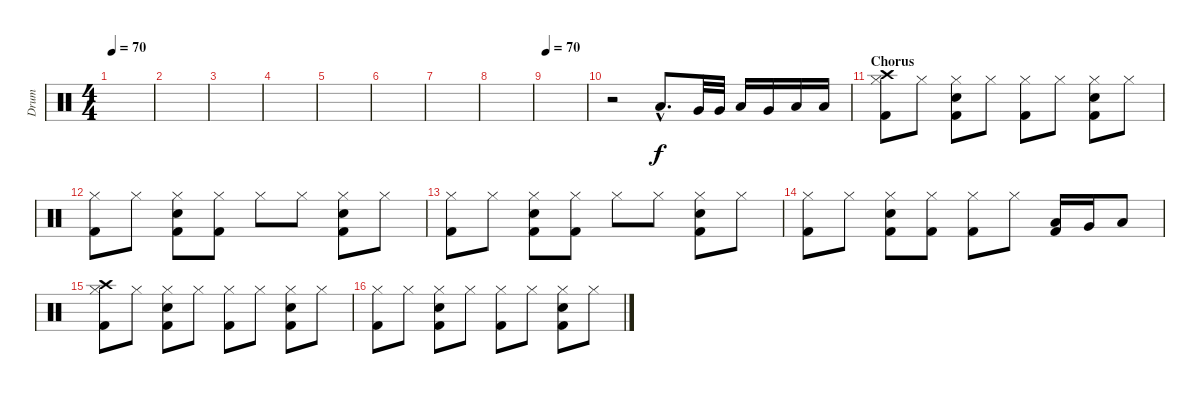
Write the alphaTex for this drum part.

\track ("Drum" "Drum") {instrument percussion}
\staff {score}
\articulation defaults
\ts (4 4)
\tempo 70
\clef neutral
\ks c
|
|
|
|
|
|
|
|
\tempo 70
|
r.2 "Low Tom (hit)"{hac}.8{d} "Very Low Tom (hit)".32 "Very Low Tom (hit)".32 "Low Tom (hit)".16 "Very Low Tom (hit)".16 "Low Floor Tom (hit)".16 "Low Floor Tom (hit)".16 |
\section ("" "Chorus")
("Crash high (hit)" "Hi-Hat (closed)" "Kick (hit) 2").8 "Hi-Hat (closed)".8 ("Hi-Hat (closed)" "Electric Snare (hit)" "Kick (hit) 2").8 "Hi-Hat (closed)".8 ("Hi-Hat (closed)" "Kick (hit) 2").8 "Hi-Hat (closed)".8 ("Hi-Hat (closed)" "Electric Snare (hit)" "Kick (hit) 2").8 "Hi-Hat (closed)".8 |
("Hi-Hat (closed)" "Kick (hit) 2").8 "Hi-Hat (closed)".8 ("Hi-Hat (closed)" "Electric Snare (hit)" "Kick (hit) 2").8 ("Hi-Hat (closed)" "Kick (hit) 2").8 "Hi-Hat (closed)".8 "Hi-Hat (closed)".8 ("Hi-Hat (closed)" "Electric Snare (hit)" "Kick (hit) 2").8 "Hi-Hat (closed)".8 |
("Hi-Hat (closed)" "Kick (hit) 2").8 "Hi-Hat (closed)".8 ("Hi-Hat (closed)" "Electric Snare (hit)" "Kick (hit) 2").8 ("Hi-Hat (closed)" "Kick (hit) 2").8 "Hi-Hat (closed)".8 "Hi-Hat (closed)".8 ("Hi-Hat (closed)" "Electric Snare (hit)" "Kick (hit) 2").8 "Hi-Hat (closed)".8 |
("Hi-Hat (closed)" "Kick (hit) 2").8 "Hi-Hat (closed)".8 ("Hi-Hat (closed)" "Electric Snare (hit)" "Kick (hit) 2").8 ("Hi-Hat (closed)" "Kick (hit) 2").8 ("Hi-Hat (closed)" "Kick (hit) 2").8 "Hi-Hat (closed)".8 ("Low Tom (hit)" "Kick (hit) 2").16 "Very Low Tom (hit)".16 "Low Floor Tom (hit)".8 |
("Crash high (hit)" "Hi-Hat (closed)" "Kick (hit) 2").8 "Hi-Hat (closed)".8 ("Hi-Hat (closed)" "Electric Snare (hit)" "Kick (hit) 2").8 "Hi-Hat (closed)".8 ("Hi-Hat (closed)" "Kick (hit) 2").8 "Hi-Hat (closed)".8 ("Hi-Hat (closed)" "Electric Snare (hit)" "Kick (hit) 2").8 "Hi-Hat (closed)".8 |
("Hi-Hat (closed)" "Kick (hit) 2").8 "Hi-Hat (closed)".8 ("Hi-Hat (closed)" "Electric Snare (hit)" "Kick (hit) 2").8 "Hi-Hat (closed)".8 ("Hi-Hat (closed)" "Kick (hit) 2").8 "Hi-Hat (closed)".8 ("Hi-Hat (closed)" "Electric Snare (hit)" "Kick (hit) 2").8 "Hi-Hat (closed)".8
